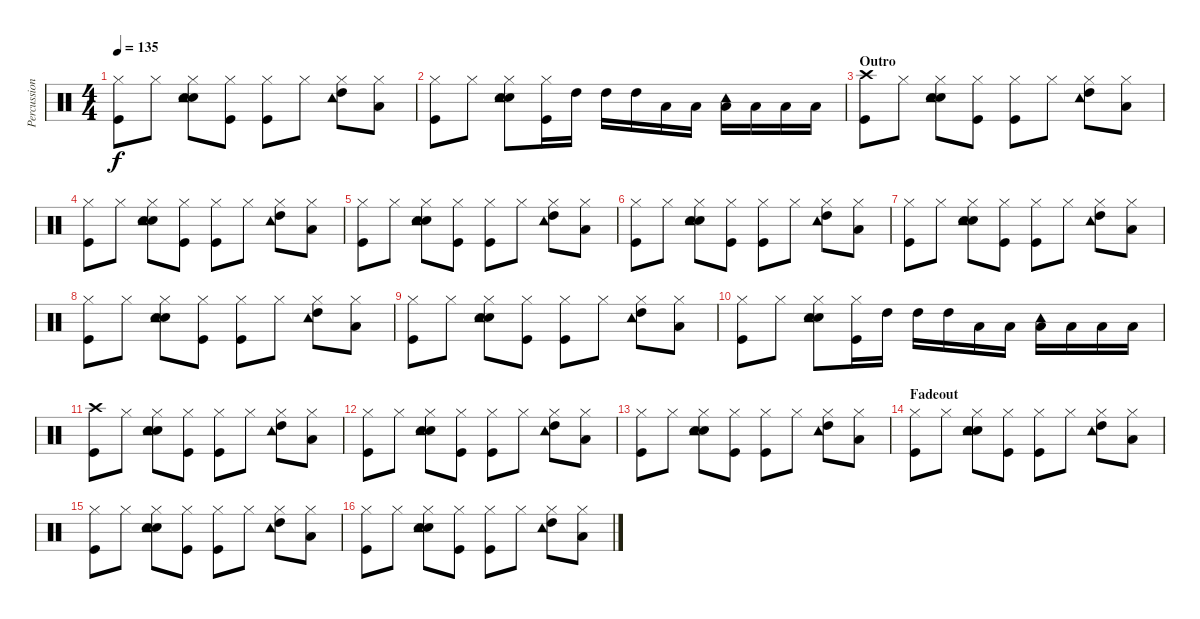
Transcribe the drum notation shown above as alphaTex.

\track ("Percussion" "Percussion") {instrument percussion}
\staff {score}
\articulation defaults
\ts (4 4)
\tempo 135
\clef neutral
\ks c
("Hi-Hat (closed)" "Kick (hit)").8{dy f} "Hi-Hat (closed)".8 ("Hi-Hat (closed)" "Electric Snare (hit)" "Tambourine (hit)" "Hand Clap (hit)").8 ("Hi-Hat (closed)" "Kick (hit)").8 ("Hi-Hat (closed)" "Kick (hit)").8 "Hi-Hat (closed)".8 ("Hi-Hat (closed)" "High Tom (hit)" "Tambourine (hit)").8 ("Hi-Hat (closed)" "Low Tom (hit)").8 |
("Hi-Hat (closed)" "Kick (hit)").8 "Hi-Hat (closed)".8 ("Hi-Hat (closed)" "Electric Snare (hit)" "Tambourine (hit)" "Hand Clap (hit)").8 ("Hi-Hat (closed)" "Kick (hit)").16 "High Tom (hit)".16 "High Tom (hit)".16 "High Tom (hit)".16 "Low Tom (hit)".16 "Low Tom (hit)".16 ("Low Tom (hit)" "Tambourine (hit)").16 "Low Tom (hit)".16 "Low Floor Tom (hit)".16 "Low Floor Tom (hit)".16 |
\section ("" "Outro")
("Crash high (hit)" "Kick (hit)").8 "Hi-Hat (closed)".8 ("Hi-Hat (closed)" "Electric Snare (hit)" "Tambourine (hit)" "Hand Clap (hit)").8 ("Hi-Hat (closed)" "Kick (hit)").8 ("Hi-Hat (closed)" "Kick (hit)").8 "Hi-Hat (closed)".8 ("Hi-Hat (closed)" "High Tom (hit)" "Tambourine (hit)").8 ("Hi-Hat (closed)" "Low Tom (hit)").8 |
("Hi-Hat (closed)" "Kick (hit)").8 "Hi-Hat (closed)".8 ("Hi-Hat (closed)" "Electric Snare (hit)" "Tambourine (hit)" "Hand Clap (hit)").8 ("Hi-Hat (closed)" "Kick (hit)").8 ("Hi-Hat (closed)" "Kick (hit)").8 "Hi-Hat (closed)".8 ("Hi-Hat (closed)" "High Tom (hit)" "Tambourine (hit)").8 ("Hi-Hat (closed)" "Low Tom (hit)").8 |
("Hi-Hat (closed)" "Kick (hit)").8 "Hi-Hat (closed)".8 ("Hi-Hat (closed)" "Electric Snare (hit)" "Tambourine (hit)" "Hand Clap (hit)").8 ("Hi-Hat (closed)" "Kick (hit)").8 ("Hi-Hat (closed)" "Kick (hit)").8 "Hi-Hat (closed)".8 ("Hi-Hat (closed)" "High Tom (hit)" "Tambourine (hit)").8 ("Hi-Hat (closed)" "Low Tom (hit)").8 |
("Hi-Hat (closed)" "Kick (hit)").8 "Hi-Hat (closed)".8 ("Hi-Hat (closed)" "Electric Snare (hit)" "Tambourine (hit)" "Hand Clap (hit)").8 ("Hi-Hat (closed)" "Kick (hit)").8 ("Hi-Hat (closed)" "Kick (hit)").8 "Hi-Hat (closed)".8 ("Hi-Hat (closed)" "High Tom (hit)" "Tambourine (hit)").8 ("Hi-Hat (closed)" "Low Tom (hit)").8 |
("Hi-Hat (closed)" "Kick (hit)").8 "Hi-Hat (closed)".8 ("Hi-Hat (closed)" "Electric Snare (hit)" "Tambourine (hit)" "Hand Clap (hit)").8 ("Hi-Hat (closed)" "Kick (hit)").8 ("Hi-Hat (closed)" "Kick (hit)").8 "Hi-Hat (closed)".8 ("Hi-Hat (closed)" "High Tom (hit)" "Tambourine (hit)").8 ("Hi-Hat (closed)" "Low Tom (hit)").8 |
("Hi-Hat (closed)" "Kick (hit)").8 "Hi-Hat (closed)".8 ("Hi-Hat (closed)" "Electric Snare (hit)" "Tambourine (hit)" "Hand Clap (hit)").8 ("Hi-Hat (closed)" "Kick (hit)").8 ("Hi-Hat (closed)" "Kick (hit)").8 "Hi-Hat (closed)".8 ("Hi-Hat (closed)" "High Tom (hit)" "Tambourine (hit)").8 ("Hi-Hat (closed)" "Low Tom (hit)").8 |
("Hi-Hat (closed)" "Kick (hit)").8 "Hi-Hat (closed)".8 ("Hi-Hat (closed)" "Electric Snare (hit)" "Tambourine (hit)" "Hand Clap (hit)").8 ("Hi-Hat (closed)" "Kick (hit)").8 ("Hi-Hat (closed)" "Kick (hit)").8 "Hi-Hat (closed)".8 ("Hi-Hat (closed)" "High Tom (hit)" "Tambourine (hit)").8 ("Hi-Hat (closed)" "Low Tom (hit)").8 |
("Hi-Hat (closed)" "Kick (hit)").8 "Hi-Hat (closed)".8 ("Hi-Hat (closed)" "Electric Snare (hit)" "Tambourine (hit)" "Hand Clap (hit)").8 ("Hi-Hat (closed)" "Kick (hit)").16 "High Tom (hit)".16 "High Tom (hit)".16 "High Tom (hit)".16 "Low Tom (hit)".16 "Low Tom (hit)".16 ("Low Tom (hit)" "Tambourine (hit)").16 "Low Tom (hit)".16 "Low Floor Tom (hit)".16 "Low Floor Tom (hit)".16 |
("Crash high (hit)" "Kick (hit)").8 "Hi-Hat (closed)".8 ("Hi-Hat (closed)" "Electric Snare (hit)" "Tambourine (hit)" "Hand Clap (hit)").8 ("Hi-Hat (closed)" "Kick (hit)").8 ("Hi-Hat (closed)" "Kick (hit)").8 "Hi-Hat (closed)".8 ("Hi-Hat (closed)" "High Tom (hit)" "Tambourine (hit)").8 ("Hi-Hat (closed)" "Low Tom (hit)").8 |
("Hi-Hat (closed)" "Kick (hit)").8 "Hi-Hat (closed)".8 ("Hi-Hat (closed)" "Electric Snare (hit)" "Tambourine (hit)" "Hand Clap (hit)").8 ("Hi-Hat (closed)" "Kick (hit)").8 ("Hi-Hat (closed)" "Kick (hit)").8 "Hi-Hat (closed)".8 ("Hi-Hat (closed)" "High Tom (hit)" "Tambourine (hit)").8 ("Hi-Hat (closed)" "Low Tom (hit)").8 |
("Hi-Hat (closed)" "Kick (hit)").8 "Hi-Hat (closed)".8 ("Hi-Hat (closed)" "Electric Snare (hit)" "Tambourine (hit)" "Hand Clap (hit)").8 ("Hi-Hat (closed)" "Kick (hit)").8 ("Hi-Hat (closed)" "Kick (hit)").8 "Hi-Hat (closed)".8 ("Hi-Hat (closed)" "High Tom (hit)" "Tambourine (hit)").8 ("Hi-Hat (closed)" "Low Tom (hit)").8 |
\section ("" "Fadeout")
("Hi-Hat (closed)" "Kick (hit)").8 "Hi-Hat (closed)".8 ("Hi-Hat (closed)" "Electric Snare (hit)" "Tambourine (hit)" "Hand Clap (hit)").8 ("Hi-Hat (closed)" "Kick (hit)").8 ("Hi-Hat (closed)" "Kick (hit)").8 "Hi-Hat (closed)".8 ("Hi-Hat (closed)" "High Tom (hit)" "Tambourine (hit)").8 ("Hi-Hat (closed)" "Low Tom (hit)").8 |
("Hi-Hat (closed)" "Kick (hit)").8{volume 11} "Hi-Hat (closed)".8 ("Hi-Hat (closed)" "Electric Snare (hit)" "Tambourine (hit)" "Hand Clap (hit)").8 ("Hi-Hat (closed)" "Kick (hit)").8 ("Hi-Hat (closed)" "Kick (hit)").8 "Hi-Hat (closed)".8 ("Hi-Hat (closed)" "High Tom (hit)" "Tambourine (hit)").8 ("Hi-Hat (closed)" "Low Tom (hit)").8 |
("Hi-Hat (closed)" "Kick (hit)").8 "Hi-Hat (closed)".8 ("Hi-Hat (closed)" "Electric Snare (hit)" "Tambourine (hit)" "Hand Clap (hit)").8 ("Hi-Hat (closed)" "Kick (hit)").8 ("Hi-Hat (closed)" "Kick (hit)").8 "Hi-Hat (closed)".8 ("Hi-Hat (closed)" "High Tom (hit)" "Tambourine (hit)").8 ("Hi-Hat (closed)" "Low Tom (hit)").8
